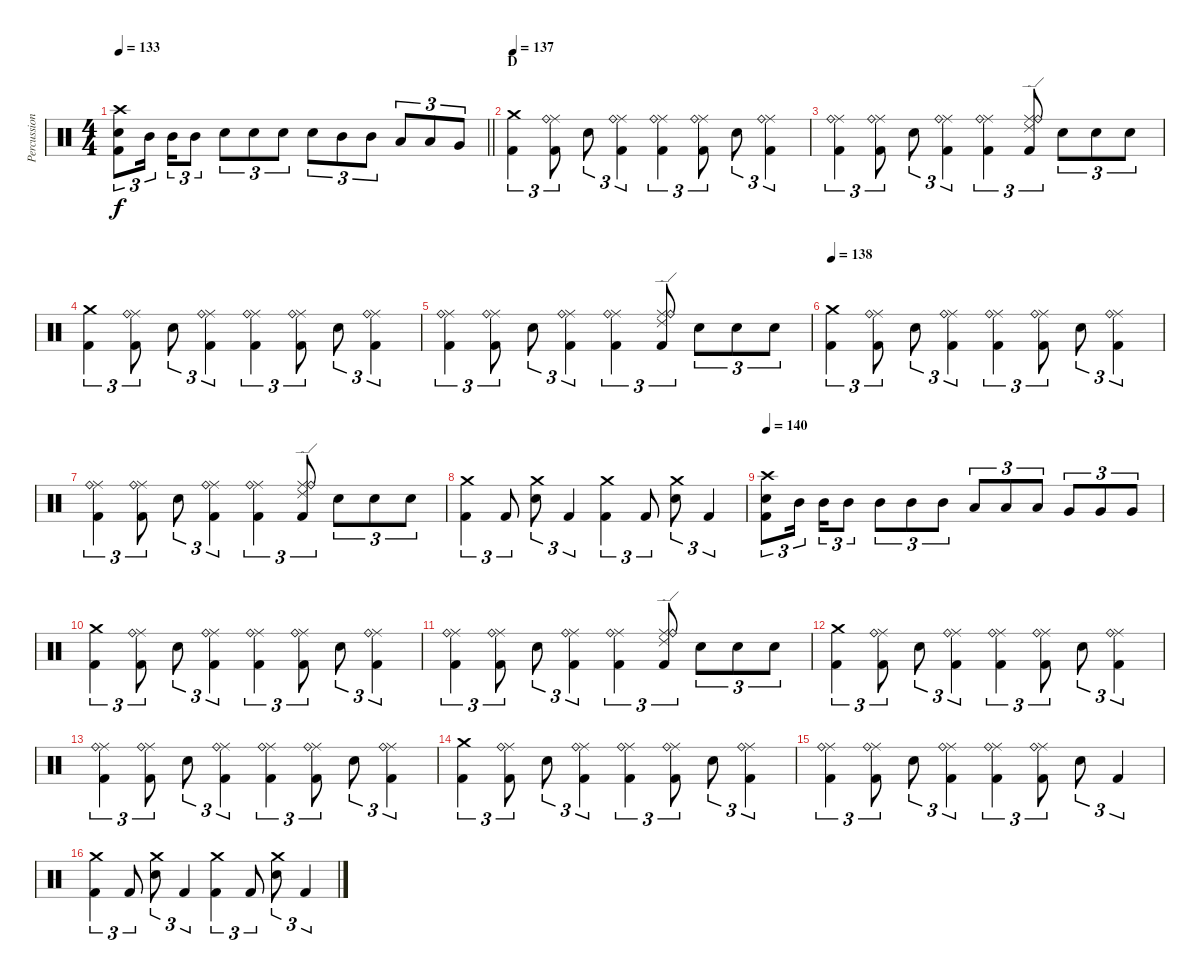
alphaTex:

\track ("Percussion" "Percussion") {instrument percussion}
\staff {score}
\articulation defaults
\ts (4 4)
\tempo 133
\clef neutral
\barLineRight lightlight
\ks c
("Crash high (hit)" "Snare (hit) 2" "Kick (hit) 2").8{tu (3 2) dy f} "Mid Tom (hit)".16{tu (3 2)} "Mid Tom (hit)".16{tu (3 2)} "Mid Tom (hit)".8{tu (3 2)} "Snare (hit) 2".8{tu (3 2)} "Snare (hit) 2".8{tu (3 2)} "Snare (hit) 2".8{tu (3 2)} "Snare (hit) 2".8{tu (3 2)} "Mid Tom (hit)".8{tu (3 2)} "Mid Tom (hit)".8{tu (3 2)} "Low Tom (hit)".8{tu (3 2)} "Low Tom (hit)".8{tu (3 2)} "Very Low Tom (hit)".8{tu (3 2)} |
\section ("" "D")
\tempo 137
("Crash medium (hit)" "Kick (hit) 2").4{tu (3 2)} ("Ride (middle)" "Ride (bell)" "Kick (hit) 2").8{tu (3 2)} "Snare (hit) 2".8{tu (3 2)} ("Ride (middle)" "Ride (bell)" "Kick (hit) 2").4{tu (3 2)} ("Ride (middle)" "Ride (bell)" "Kick (hit) 2").4{tu (3 2)} ("Ride (middle)" "Ride (bell)" "Kick (hit) 2").8{tu (3 2)} "Snare (hit) 2".8{tu (3 2)} ("Ride (middle)" "Ride (bell)" "Kick (hit) 2").4{tu (3 2)} |
("Ride (middle)" "Ride (bell)" "Kick (hit) 2").4{tu (3 2)} ("Ride (middle)" "Ride (bell)" "Kick (hit) 2").8{tu (3 2)} "Snare (hit) 2".8{tu (3 2)} ("Ride (middle)" "Ride (bell)" "Kick (hit) 2").4{tu (3 2)} ("Ride (middle)" "Ride (bell)" "Kick (hit) 2").4{tu (3 2)} ("Ride (middle)" "Ride (bell)" "Ride (edge) 2" "Kick (hit) 2").8{tu (3 2)} "Snare (hit) 2".8{tu (3 2)} "Snare (hit) 2".8{tu (3 2)} "Snare (hit) 2".8{tu (3 2)} |
("Crash medium (hit)" "Kick (hit) 2").4{tu (3 2)} ("Ride (middle)" "Ride (bell)" "Kick (hit) 2").8{tu (3 2)} "Snare (hit) 2".8{tu (3 2)} ("Ride (middle)" "Ride (bell)" "Kick (hit) 2").4{tu (3 2)} ("Ride (middle)" "Ride (bell)" "Kick (hit) 2").4{tu (3 2)} ("Ride (middle)" "Ride (bell)" "Kick (hit) 2").8{tu (3 2)} "Snare (hit) 2".8{tu (3 2)} ("Ride (middle)" "Ride (bell)" "Kick (hit) 2").4{tu (3 2)} |
("Ride (middle)" "Ride (bell)" "Kick (hit) 2").4{tu (3 2)} ("Ride (middle)" "Ride (bell)" "Kick (hit) 2").8{tu (3 2)} "Snare (hit) 2".8{tu (3 2)} ("Ride (middle)" "Ride (bell)" "Kick (hit) 2").4{tu (3 2)} ("Ride (middle)" "Ride (bell)" "Kick (hit) 2").4{tu (3 2)} ("Ride (middle)" "Ride (bell)" "Ride (edge) 2" "Kick (hit) 2").8{tu (3 2)} "Snare (hit) 2".8{tu (3 2)} "Snare (hit) 2".8{tu (3 2)} "Snare (hit) 2".8{tu (3 2)} |
\tempo 138
("Crash medium (hit)" "Kick (hit) 2").4{tu (3 2)} ("Ride (middle)" "Ride (bell)" "Kick (hit) 2").8{tu (3 2)} "Snare (hit) 2".8{tu (3 2)} ("Ride (middle)" "Ride (bell)" "Kick (hit) 2").4{tu (3 2)} ("Ride (middle)" "Ride (bell)" "Kick (hit) 2").4{tu (3 2)} ("Ride (middle)" "Ride (bell)" "Kick (hit) 2").8{tu (3 2)} "Snare (hit) 2".8{tu (3 2)} ("Ride (middle)" "Ride (bell)" "Kick (hit) 2").4{tu (3 2)} |
("Ride (middle)" "Ride (bell)" "Kick (hit) 2").4{tu (3 2)} ("Ride (middle)" "Ride (bell)" "Kick (hit) 2").8{tu (3 2)} "Snare (hit) 2".8{tu (3 2)} ("Ride (middle)" "Ride (bell)" "Kick (hit) 2").4{tu (3 2)} ("Ride (middle)" "Ride (bell)" "Kick (hit) 2").4{tu (3 2)} ("Ride (middle)" "Ride (bell)" "Ride (edge) 2" "Kick (hit) 2").8{tu (3 2)} "Snare (hit) 2".8{tu (3 2)} "Snare (hit) 2".8{tu (3 2)} "Snare (hit) 2".8{tu (3 2)} |
("Crash medium (hit)" "Kick (hit) 2").4{tu (3 2)} "Kick (hit) 2".8{tu (3 2)} ("Crash medium (hit)" "Snare (hit) 2").8{tu (3 2)} "Kick (hit) 2".4{tu (3 2)} ("Crash medium (hit)" "Kick (hit) 2").4{tu (3 2)} "Kick (hit) 2".8{tu (3 2)} ("Crash medium (hit)" "Snare (hit) 2").8{tu (3 2)} "Kick (hit) 2".4{tu (3 2)} |
\tempo 140
("Crash high (hit)" "Snare (hit) 2" "Kick (hit) 2").8{tu (3 2)} "Mid Tom (hit)".16{tu (3 2)} "Mid Tom (hit)".16{tu (3 2)} "Mid Tom (hit)".8{tu (3 2)} "Mid Tom (hit)".8{tu (3 2)} "Mid Tom (hit)".8{tu (3 2)} "Mid Tom (hit)".8{tu (3 2)} "Low Tom (hit)".8{tu (3 2)} "Low Tom (hit)".8{tu (3 2)} "Low Tom (hit)".8{tu (3 2)} "Very Low Tom (hit)".8{tu (3 2)} "Very Low Tom (hit)".8{tu (3 2)} "Very Low Tom (hit)".8{tu (3 2)} |
("Crash medium (hit)" "Kick (hit) 2").4{tu (3 2)} ("Ride (middle)" "Ride (bell)" "Kick (hit) 2").8{tu (3 2)} "Snare (hit) 2".8{tu (3 2)} ("Ride (middle)" "Ride (bell)" "Kick (hit) 2").4{tu (3 2)} ("Ride (middle)" "Ride (bell)" "Kick (hit) 2").4{tu (3 2)} ("Ride (middle)" "Ride (bell)" "Kick (hit) 2").8{tu (3 2)} "Snare (hit) 2".8{tu (3 2)} ("Ride (middle)" "Ride (bell)" "Kick (hit) 2").4{tu (3 2)} |
("Ride (middle)" "Ride (bell)" "Kick (hit) 2").4{tu (3 2)} ("Ride (middle)" "Ride (bell)" "Kick (hit) 2").8{tu (3 2)} "Snare (hit) 2".8{tu (3 2)} ("Ride (middle)" "Ride (bell)" "Kick (hit) 2").4{tu (3 2)} ("Ride (middle)" "Ride (bell)" "Kick (hit) 2").4{tu (3 2)} ("Ride (middle)" "Ride (bell)" "Ride (edge) 2" "Kick (hit) 2").8{tu (3 2)} "Snare (hit) 2".8{tu (3 2)} "Snare (hit) 2".8{tu (3 2)} "Snare (hit) 2".8{tu (3 2)} |
("Crash medium (hit)" "Kick (hit) 2").4{tu (3 2)} ("Ride (middle)" "Ride (bell)" "Kick (hit) 2").8{tu (3 2)} "Snare (hit) 2".8{tu (3 2)} ("Ride (middle)" "Ride (bell)" "Kick (hit) 2").4{tu (3 2)} ("Ride (middle)" "Ride (bell)" "Kick (hit) 2").4{tu (3 2)} ("Ride (middle)" "Ride (bell)" "Kick (hit) 2").8{tu (3 2)} "Snare (hit) 2".8{tu (3 2)} ("Ride (middle)" "Ride (bell)" "Kick (hit) 2").4{tu (3 2)} |
("Ride (middle)" "Ride (bell)" "Kick (hit) 2").4{tu (3 2)} ("Ride (middle)" "Ride (bell)" "Kick (hit) 2").8{tu (3 2)} "Snare (hit) 2".8{tu (3 2)} ("Ride (middle)" "Ride (bell)" "Kick (hit) 2").4{tu (3 2)} ("Ride (middle)" "Ride (bell)" "Kick (hit) 2").4{tu (3 2)} ("Ride (middle)" "Ride (bell)" "Kick (hit) 2").8{tu (3 2)} "Snare (hit) 2".8{tu (3 2)} ("Ride (middle)" "Ride (bell)" "Kick (hit) 2").4{tu (3 2)} |
("Crash medium (hit)" "Kick (hit) 2").4{tu (3 2)} ("Ride (middle)" "Ride (bell)" "Kick (hit) 2").8{tu (3 2)} "Snare (hit) 2".8{tu (3 2)} ("Ride (middle)" "Ride (bell)" "Kick (hit) 2").4{tu (3 2)} ("Ride (middle)" "Ride (bell)" "Kick (hit) 2").4{tu (3 2)} ("Ride (middle)" "Ride (bell)" "Kick (hit) 2").8{tu (3 2)} "Snare (hit) 2".8{tu (3 2)} ("Ride (middle)" "Ride (bell)" "Kick (hit) 2").4{tu (3 2)} |
("Ride (middle)" "Ride (bell)" "Kick (hit) 2").4{tu (3 2)} ("Ride (middle)" "Ride (bell)" "Kick (hit) 2").8{tu (3 2)} "Snare (hit) 2".8{tu (3 2)} ("Ride (middle)" "Ride (bell)" "Kick (hit) 2").4{tu (3 2)} ("Ride (middle)" "Ride (bell)" "Kick (hit) 2").4{tu (3 2)} ("Ride (middle)" "Ride (bell)" "Kick (hit) 2").8{tu (3 2)} "Snare (hit) 2".8{tu (3 2)} "Kick (hit) 2".4{tu (3 2)} |
("Crash medium (hit)" "Kick (hit) 2").4{tu (3 2)} "Kick (hit) 2".8{tu (3 2)} ("Crash medium (hit)" "Snare (hit) 2").8{tu (3 2)} "Kick (hit) 2".4{tu (3 2)} ("Crash medium (hit)" "Kick (hit) 2").4{tu (3 2)} "Kick (hit) 2".8{tu (3 2)} ("Crash medium (hit)" "Snare (hit) 2").8{tu (3 2)} "Kick (hit) 2".4{tu (3 2)}
